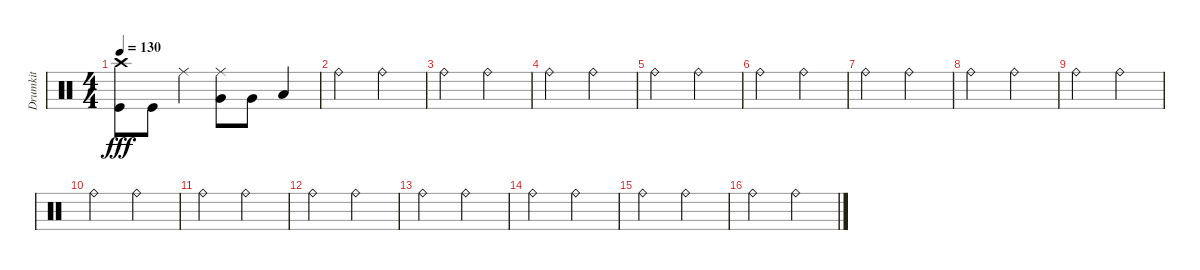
\track ("Drumkit" "Drumkit") {instrument percussion}
\staff {score}
\articulation defaults
\ts (4 4)
\tempo 130
\clef neutral
\ks c
("Kick (hit)" "Crash high (hit)").8{dy fff} "Kick (hit)".8 "Ride (middle)".4 ("Ride (middle)" "Very Low Tom (hit)").8 "Very Low Tom (hit)".8 "Low Tom (hit)".4 |
"Ride (bell)".2 "Ride (bell)".2 |
"Ride (bell)".2 "Ride (bell)".2 |
"Ride (bell)".2 "Ride (bell)".2 |
"Ride (bell)".2 "Ride (bell)".2 |
"Ride (bell)".2 "Ride (bell)".2 |
"Ride (bell)".2 "Ride (bell)".2 |
"Ride (bell)".2 "Ride (bell)".2 |
"Ride (bell)".2 "Ride (bell)".2 |
"Ride (bell)".2 "Ride (bell)".2 |
"Ride (bell)".2 "Ride (bell)".2 |
"Ride (bell)".2 "Ride (bell)".2 |
"Ride (bell)".2 "Ride (bell)".2 |
"Ride (bell)".2 "Ride (bell)".2 |
"Ride (bell)".2 "Ride (bell)".2 |
"Ride (bell)".2 "Ride (bell)".2
